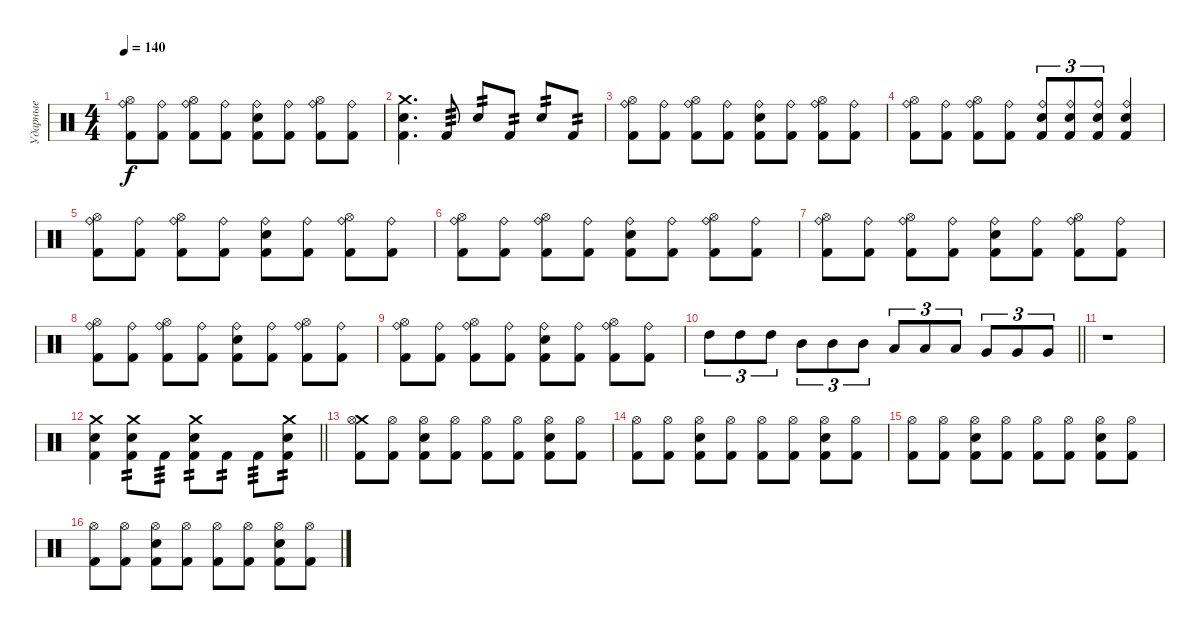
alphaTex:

\track ("Ударные" "Ударные") {instrument percussion}
\staff {score}
\articulation defaults
\ts (4 4)
\tempo 140
\clef neutral
\ks c
("Kick (hit) 2" "Ride (bell)" "Hi-Hat (open)").8{dy f} ("Kick (hit) 2" "Ride (bell)").8 ("Kick (hit) 2" "Ride (bell)" "Hi-Hat (open)").8 ("Kick (hit) 2" "Ride (bell)").8 ("Kick (hit) 2" "Ride (bell)" "Snare (hit) 2").8 ("Kick (hit) 2" "Ride (bell)").8 ("Kick (hit) 2" "Ride (bell)" "Hi-Hat (open)").8 ("Kick (hit) 2" "Ride (bell)").8 |
("Kick (hit) 2" "Snare (hit) 2" "Crash medium (hit)").4{d} "Kick (hit) 2".8{tp 3} "Snare (hit) 2".8{tp 2} "Kick (hit) 2".8{tp 2} "Snare (hit) 2".8{tp 2} "Kick (hit) 2".8{tp 2} |
("Kick (hit) 2" "Ride (bell)" "Hi-Hat (open)").8 ("Kick (hit) 2" "Ride (bell)").8 ("Kick (hit) 2" "Ride (bell)" "Hi-Hat (open)").8 ("Kick (hit) 2" "Ride (bell)").8 ("Kick (hit) 2" "Ride (bell)" "Snare (hit) 2").8 ("Kick (hit) 2" "Ride (bell)").8 ("Kick (hit) 2" "Ride (bell)" "Hi-Hat (open)").8 ("Kick (hit) 2" "Ride (bell)").8 |
("Kick (hit) 2" "Ride (bell)" "Hi-Hat (open)").8 ("Kick (hit) 2" "Ride (bell)").8 ("Kick (hit) 2" "Ride (bell)" "Hi-Hat (open)").8 ("Kick (hit) 2" "Ride (bell)").8 ("Kick (hit) 2" "Ride (bell)" "Snare (hit) 2").8{tu (3 2)} ("Kick (hit) 2" "Ride (bell)" "Snare (hit) 2").8{tu (3 2)} ("Kick (hit) 2" "Ride (bell)" "Snare (hit) 2").8{tu (3 2)} ("Kick (hit) 2" "Ride (bell)" "Snare (hit) 2").4 |
("Kick (hit) 2" "Ride (bell)" "Hi-Hat (open)").8 ("Kick (hit) 2" "Ride (bell)").8 ("Kick (hit) 2" "Ride (bell)" "Hi-Hat (open)").8 ("Kick (hit) 2" "Ride (bell)").8 ("Kick (hit) 2" "Ride (bell)" "Snare (hit) 2").8 ("Kick (hit) 2" "Ride (bell)").8 ("Kick (hit) 2" "Ride (bell)" "Hi-Hat (open)").8 ("Kick (hit) 2" "Ride (bell)").8 |
("Kick (hit) 2" "Ride (bell)" "Hi-Hat (open)").8 ("Kick (hit) 2" "Ride (bell)").8 ("Kick (hit) 2" "Ride (bell)" "Hi-Hat (open)").8 ("Kick (hit) 2" "Ride (bell)").8 ("Kick (hit) 2" "Ride (bell)" "Snare (hit) 2").8 ("Kick (hit) 2" "Ride (bell)").8 ("Kick (hit) 2" "Ride (bell)" "Hi-Hat (open)").8 ("Kick (hit) 2" "Ride (bell)").8 |
("Kick (hit) 2" "Ride (bell)" "Hi-Hat (open)").8 ("Kick (hit) 2" "Ride (bell)").8 ("Kick (hit) 2" "Ride (bell)" "Hi-Hat (open)").8 ("Kick (hit) 2" "Ride (bell)").8 ("Kick (hit) 2" "Ride (bell)" "Snare (hit) 2").8 ("Kick (hit) 2" "Ride (bell)").8 ("Kick (hit) 2" "Ride (bell)" "Hi-Hat (open)").8 ("Kick (hit) 2" "Ride (bell)").8 |
("Kick (hit) 2" "Ride (bell)" "Hi-Hat (open)").8 ("Kick (hit) 2" "Ride (bell)").8 ("Kick (hit) 2" "Ride (bell)" "Hi-Hat (open)").8 ("Kick (hit) 2" "Ride (bell)").8 ("Kick (hit) 2" "Ride (bell)" "Snare (hit) 2").8 ("Kick (hit) 2" "Ride (bell)").8 ("Kick (hit) 2" "Ride (bell)" "Hi-Hat (open)").8 ("Kick (hit) 2" "Ride (bell)").8 |
("Kick (hit) 2" "Ride (bell)" "Hi-Hat (open)").8 ("Kick (hit) 2" "Ride (bell)").8 ("Kick (hit) 2" "Ride (bell)" "Hi-Hat (open)").8 ("Kick (hit) 2" "Ride (bell)").8 ("Kick (hit) 2" "Ride (bell)" "Snare (hit) 2").8 ("Kick (hit) 2" "Ride (bell)").8 ("Kick (hit) 2" "Ride (bell)" "Hi-Hat (open)").8 ("Kick (hit) 2" "Ride (bell)").8 |
\barLineRight lightlight "High Tom (hit)".8{tu (3 2)} "High Tom (hit)".8{tu (3 2)} "High Tom (hit)".8{tu (3 2)} "Mid Tom (hit)".8{tu (3 2)} "Mid Tom (hit)".8{tu (3 2)} "Mid Tom (hit)".8{tu (3 2)} "Low Tom (hit)".8{tu (3 2)} "Low Tom (hit)".8{tu (3 2)} "Low Tom (hit)".8{tu (3 2)} "Very Low Tom (hit)".8{tu (3 2)} "Very Low Tom (hit)".8{tu (3 2)} "Very Low Tom (hit)".8{tu (3 2)}
|
r.1 |
\barLineRight lightlight
("Kick (hit) 2" "Snare (hit) 2" "Crash medium (hit)").4{volume 14} ("Kick (hit) 2" "Snare (hit) 2" "Crash medium (hit)").8{tp 2} "Kick (hit) 2".8{tp 3} ("Kick (hit) 2" "Snare (hit) 2" "Crash medium (hit)").8{tp 2} "Kick (hit) 2".8{tp 2} "Kick (hit) 2".8{tp 3} ("Kick (hit) 2" "Snare (hit) 2" "Crash medium (hit)").8{tp 2} |
("Kick (hit) 2" "Crash medium (hit)" "Hi-Hat (open)").8 ("Kick (hit) 2" "Hi-Hat (open)").8 ("Kick (hit) 2" "Hi-Hat (open)" "Snare (hit) 2").8 ("Kick (hit) 2" "Hi-Hat (open)").8 ("Kick (hit) 2" "Hi-Hat (open)").8 ("Kick (hit) 2" "Hi-Hat (open)").8 ("Kick (hit) 2" "Hi-Hat (open)" "Snare (hit) 2").8 ("Kick (hit) 2" "Hi-Hat (open)").8 |
("Kick (hit) 2" "Hi-Hat (open)").8 ("Kick (hit) 2" "Hi-Hat (open)").8 ("Kick (hit) 2" "Hi-Hat (open)" "Snare (hit) 2").8 ("Kick (hit) 2" "Hi-Hat (open)").8 ("Kick (hit) 2" "Hi-Hat (open)").8 ("Kick (hit) 2" "Hi-Hat (open)").8 ("Kick (hit) 2" "Hi-Hat (open)" "Snare (hit) 2").8 ("Kick (hit) 2" "Hi-Hat (open)").8 |
("Kick (hit) 2" "Hi-Hat (open)").8 ("Kick (hit) 2" "Hi-Hat (open)").8 ("Kick (hit) 2" "Hi-Hat (open)" "Snare (hit) 2").8 ("Kick (hit) 2" "Hi-Hat (open)").8 ("Kick (hit) 2" "Hi-Hat (open)").8 ("Kick (hit) 2" "Hi-Hat (open)").8 ("Kick (hit) 2" "Hi-Hat (open)" "Snare (hit) 2").8 ("Kick (hit) 2" "Hi-Hat (open)").8 |
("Kick (hit) 2" "Hi-Hat (open)").8 ("Kick (hit) 2" "Hi-Hat (open)").8 ("Kick (hit) 2" "Hi-Hat (open)" "Snare (hit) 2").8 ("Kick (hit) 2" "Hi-Hat (open)").8 ("Kick (hit) 2" "Hi-Hat (open)").8 ("Kick (hit) 2" "Hi-Hat (open)").8 ("Kick (hit) 2" "Hi-Hat (open)" "Snare (hit) 2").8 ("Kick (hit) 2" "Hi-Hat (open)").8
